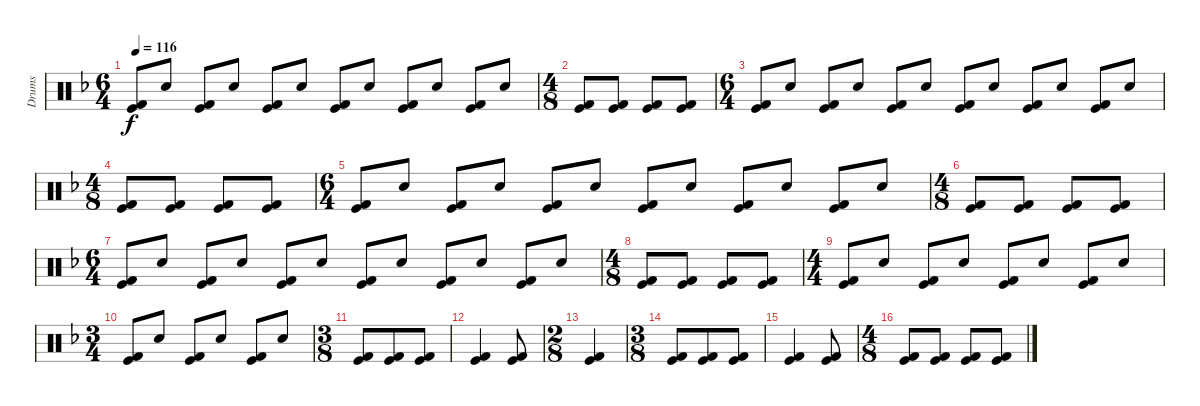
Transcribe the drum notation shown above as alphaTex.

\track ("Drums" "Drums") {instrument percussion}
\staff {score}
\articulation defaults
\ts (6 4)
\tempo 116
\clef neutral
\ks f
("Kick (hit)" "Kick (hit) 2").8{dy f} "Snare (hit) 2".8 ("Kick (hit)" "Kick (hit) 2").8 "Snare (hit) 2".8 ("Kick (hit)" "Kick (hit) 2").8 "Snare (hit) 2".8 ("Kick (hit)" "Kick (hit) 2").8 "Snare (hit) 2".8 ("Kick (hit)" "Kick (hit) 2").8 "Snare (hit) 2".8 ("Kick (hit)" "Kick (hit) 2").8 "Snare (hit) 2".8 |
\ts (4 8)
("Kick (hit)" "Kick (hit) 2").8 ("Kick (hit)" "Kick (hit) 2").8 ("Kick (hit)" "Kick (hit) 2").8 ("Kick (hit)" "Kick (hit) 2").8 |
\ts (6 4)
("Kick (hit)" "Kick (hit) 2").8 "Snare (hit) 2".8 ("Kick (hit)" "Kick (hit) 2").8 "Snare (hit) 2".8 ("Kick (hit)" "Kick (hit) 2").8 "Snare (hit) 2".8 ("Kick (hit)" "Kick (hit) 2").8 "Snare (hit) 2".8 ("Kick (hit)" "Kick (hit) 2").8 "Snare (hit) 2".8 ("Kick (hit)" "Kick (hit) 2").8 "Snare (hit) 2".8 |
\ts (4 8)
("Kick (hit)" "Kick (hit) 2").8 ("Kick (hit)" "Kick (hit) 2").8 ("Kick (hit)" "Kick (hit) 2").8 ("Kick (hit)" "Kick (hit) 2").8 |
\ts (6 4)
("Kick (hit)" "Kick (hit) 2").8 "Snare (hit) 2".8 ("Kick (hit)" "Kick (hit) 2").8 "Snare (hit) 2".8 ("Kick (hit)" "Kick (hit) 2").8 "Snare (hit) 2".8 ("Kick (hit)" "Kick (hit) 2").8 "Snare (hit) 2".8 ("Kick (hit)" "Kick (hit) 2").8 "Snare (hit) 2".8 ("Kick (hit)" "Kick (hit) 2").8 "Snare (hit) 2".8 |
\ts (4 8)
("Kick (hit)" "Kick (hit) 2").8 ("Kick (hit)" "Kick (hit) 2").8 ("Kick (hit)" "Kick (hit) 2").8 ("Kick (hit)" "Kick (hit) 2").8 |
\ts (6 4)
("Kick (hit)" "Kick (hit) 2").8 "Snare (hit) 2".8 ("Kick (hit)" "Kick (hit) 2").8 "Snare (hit) 2".8 ("Kick (hit)" "Kick (hit) 2").8 "Snare (hit) 2".8 ("Kick (hit)" "Kick (hit) 2").8 "Snare (hit) 2".8 ("Kick (hit)" "Kick (hit) 2").8 "Snare (hit) 2".8 ("Kick (hit)" "Kick (hit) 2").8 "Snare (hit) 2".8 |
\ts (4 8)
("Kick (hit)" "Kick (hit) 2").8 ("Kick (hit)" "Kick (hit) 2").8 ("Kick (hit)" "Kick (hit) 2").8 ("Kick (hit)" "Kick (hit) 2").8 |
\ts (4 4)
("Kick (hit)" "Kick (hit) 2").8 "Snare (hit) 2".8 ("Kick (hit)" "Kick (hit) 2").8 "Snare (hit) 2".8 ("Kick (hit)" "Kick (hit) 2").8 "Snare (hit) 2".8 ("Kick (hit)" "Kick (hit) 2").8 "Snare (hit) 2".8 |
\ts (3 4)
("Kick (hit)" "Kick (hit) 2").8 "Snare (hit) 2".8 ("Kick (hit)" "Kick (hit) 2").8 "Snare (hit) 2".8 ("Kick (hit)" "Kick (hit) 2").8 "Snare (hit) 2".8 |
\ts (3 8)
("Kick (hit)" "Kick (hit) 2").8 ("Kick (hit)" "Kick (hit) 2").8 ("Kick (hit)" "Kick (hit) 2").8 |
("Kick (hit)" "Kick (hit) 2").4 ("Kick (hit)" "Kick (hit) 2").8 |
\ts (2 8)
("Kick (hit)" "Kick (hit) 2").4 |
\ts (3 8)
("Kick (hit)" "Kick (hit) 2").8 ("Kick (hit)" "Kick (hit) 2").8 ("Kick (hit)" "Kick (hit) 2").8 |
("Kick (hit)" "Kick (hit) 2").4 ("Kick (hit)" "Kick (hit) 2").8 |
\ts (4 8)
("Kick (hit)" "Kick (hit) 2").8 ("Kick (hit)" "Kick (hit) 2").8 ("Kick (hit)" "Kick (hit) 2").8 ("Kick (hit)" "Kick (hit) 2").8
